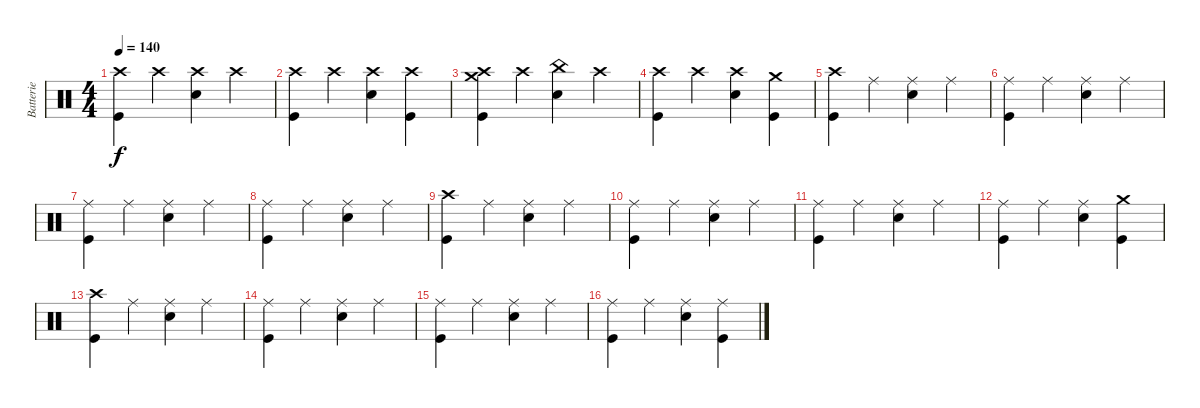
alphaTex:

\track ("Batterie" "Batterie") {instrument percussion}
\staff {score}
\articulation defaults
\ts (4 4)
\tempo 140
\clef neutral
\ks c
("Crash high (hit)" "Kick (hit)").4{dy f} "Crash high (hit)".4 ("Crash high (hit)" "Electric Snare (hit)").4 "Crash high (hit)".4 |
("Crash high (hit)" "Kick (hit)").4 "Crash high (hit)".4 ("Crash high (hit)" "Electric Snare (hit)").4 ("Crash high (hit)" "Kick (hit)").4 |
("Crash medium (hit)" "Crash high (hit)" "Kick (hit)").4 "Crash high (hit)".4 ("China (hit)" "Electric Snare (hit)").4 "Crash high (hit)".4 |
("Crash high (hit)" "Kick (hit)").4 "Crash high (hit)".4 ("Crash high (hit)" "Electric Snare (hit)").4 ("Crash medium (hit)" "Kick (hit)").4 |
("Crash high (hit)" "Kick (hit)").4 "Ride (middle)".4 ("Ride (middle)" "Electric Snare (hit)").4 "Ride (middle)".4 |
("Ride (middle)" "Kick (hit)").4 "Ride (middle)".4 ("Ride (middle)" "Electric Snare (hit)").4 "Ride (middle)".4 |
("Ride (middle)" "Kick (hit)").4 "Ride (middle)".4 ("Ride (middle)" "Electric Snare (hit)").4 "Ride (middle)".4 |
("Ride (middle)" "Kick (hit)").4 "Ride (middle)".4 ("Ride (middle)" "Electric Snare (hit)").4 "Ride (middle)".4 |
("Crash high (hit)" "Kick (hit)").4 "Ride (middle)".4 ("Ride (middle)" "Electric Snare (hit)").4 "Ride (middle)".4 |
("Ride (middle)" "Kick (hit)").4 "Ride (middle)".4 ("Ride (middle)" "Electric Snare (hit)").4 "Ride (middle)".4 |
("Ride (middle)" "Kick (hit)").4 "Ride (middle)".4 ("Ride (middle)" "Electric Snare (hit)").4 "Ride (middle)".4 |
("Ride (middle)" "Kick (hit)").4 "Ride (middle)".4 ("Ride (middle)" "Electric Snare (hit)").4 ("Crash medium (hit)" "Kick (hit)").4 |
("Crash high (hit)" "Kick (hit)").4 "Ride (middle)".4 ("Ride (middle)" "Electric Snare (hit)").4 "Ride (middle)".4 |
("Ride (middle)" "Kick (hit)").4 "Ride (middle)".4 ("Ride (middle)" "Electric Snare (hit)").4 "Ride (middle)".4 |
("Ride (middle)" "Kick (hit)").4 "Ride (middle)".4 ("Ride (middle)" "Electric Snare (hit)").4 "Ride (middle)".4 |
("Ride (middle)" "Kick (hit)").4 "Ride (middle)".4 ("Ride (middle)" "Electric Snare (hit)").4 ("Ride (middle)" "Kick (hit)").4
